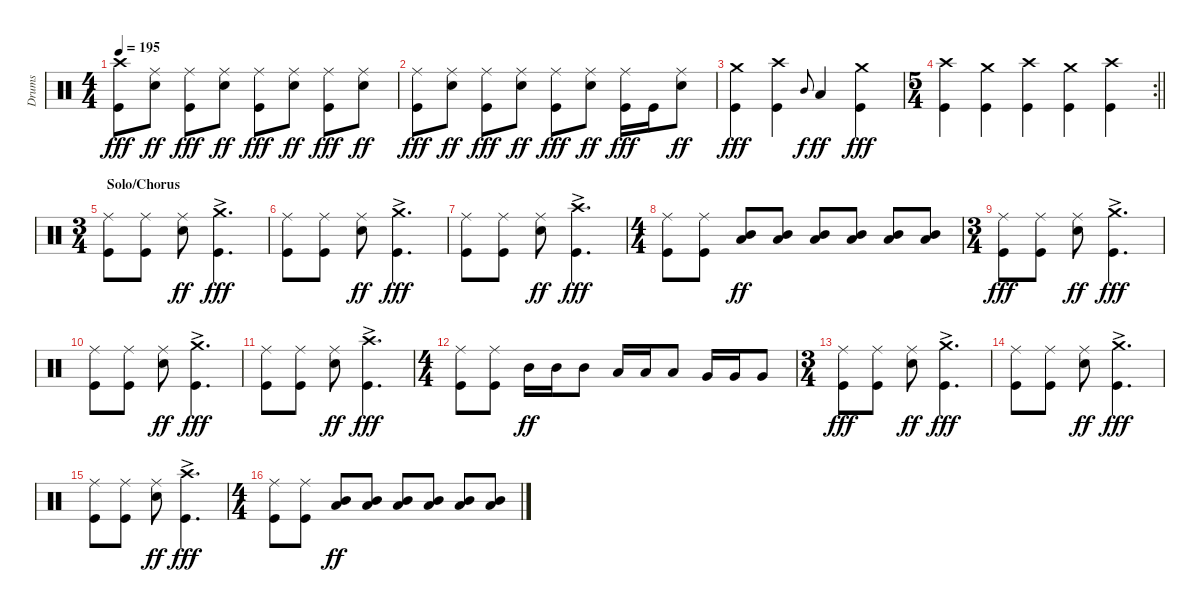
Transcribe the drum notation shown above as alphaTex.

\track ("Drums" "Drums") {instrument percussion}
\staff {score}
\articulation defaults
\ts (4 4)
\tempo 195
\clef neutral
\ks c
("Crash high (hit)" "Kick (hit)").8{dy fff} ("Ride (middle)" "Electric Snare (hit)").8{dy ff} ("Ride (middle)" "Kick (hit)").8{dy fff} ("Ride (middle)" "Electric Snare (hit)").8{dy ff} ("Ride (middle)" "Kick (hit)").8{dy fff} ("Ride (middle)" "Electric Snare (hit)").8{dy ff} ("Ride (middle)" "Kick (hit)").8{dy fff} ("Ride (middle)" "Electric Snare (hit)").8{dy ff} |
("Ride (middle)" "Kick (hit)").8{dy fff} ("Ride (middle)" "Electric Snare (hit)").8{dy ff} ("Ride (middle)" "Kick (hit)").8{dy fff} ("Ride (middle)" "Electric Snare (hit)").8{dy ff} ("Ride (middle)" "Kick (hit)").8{dy fff} ("Ride (middle)" "Electric Snare (hit)").8{dy ff} ("Ride (middle)" "Kick (hit)").16{dy fff} "Kick (hit)".16 ("Ride (middle)" "Electric Snare (hit)").8{dy ff} |
("Crash medium (hit)" "Kick (hit)").4{dy fff} ("Crash high (hit)" "Kick (hit)").4 "Mid Tom (hit)".8{gr onbeat dy f} "Low Tom (hit)".4{dy ff} ("Crash medium (hit)" "Kick (hit)").4{dy fff} |
\rc 2
\ts (5 4)
\barLineRight lightlight
("Crash high (hit)" "Kick (hit)").4 ("Crash medium (hit)" "Kick (hit)").4 ("Crash high (hit)" "Kick (hit)").4 ("Crash medium (hit)" "Kick (hit)").4 ("Crash high (hit)" "Kick (hit)").4 |
\ts (3 4)
\section ("" " Solo/Chorus")
("Ride (middle)" "Kick (hit)").8 ("Ride (middle)" "Kick (hit)").8 ("Ride (middle)" "Electric Snare (hit)").8{dy ff} ("Crash medium (hit)"{ac} "Kick (hit)").4{d dy fff} |
("Ride (middle)" "Kick (hit)").8 ("Ride (middle)" "Kick (hit)").8 ("Ride (middle)" "Electric Snare (hit)").8{dy ff} ("Crash medium (hit)"{ac} "Kick (hit)").4{d dy fff} |
("Ride (middle)" "Kick (hit)").8 ("Ride (middle)" "Kick (hit)").8 ("Ride (middle)" "Electric Snare (hit)").8{dy ff} ("Crash high (hit)"{ac} "Kick (hit)").4{d dy fff} |
\ts (4 4)
("Ride (middle)" "Kick (hit)").8 ("Ride (middle)" "Kick (hit)").8 ("Mid Tom (hit)" "Low Tom (hit)").8{dy ff} ("Mid Tom (hit)" "Low Tom (hit)").8 ("Mid Tom (hit)" "Low Tom (hit)").8 ("Mid Tom (hit)" "Low Tom (hit)").8 ("Mid Tom (hit)" "Low Tom (hit)").8 ("Mid Tom (hit)" "Low Tom (hit)").8 |
\ts (3 4)
("Ride (middle)" "Kick (hit)").8{dy fff} ("Ride (middle)" "Kick (hit)").8 ("Ride (middle)" "Electric Snare (hit)").8{dy ff} ("Crash medium (hit)"{ac} "Kick (hit)").4{d dy fff} |
("Ride (middle)" "Kick (hit)").8 ("Ride (middle)" "Kick (hit)").8 ("Ride (middle)" "Electric Snare (hit)").8{dy ff} ("Crash medium (hit)"{ac} "Kick (hit)").4{d dy fff} |
("Ride (middle)" "Kick (hit)").8 ("Ride (middle)" "Kick (hit)").8 ("Ride (middle)" "Electric Snare (hit)").8{dy ff} ("Crash high (hit)"{ac} "Kick (hit)").4{d dy fff} |
\ts (4 4)
("Ride (middle)" "Kick (hit)").8 ("Ride (middle)" "Kick (hit)").8 "Mid Tom (hit)".16{dy ff} "Mid Tom (hit)".16 "Mid Tom (hit)".8 "Low Tom (hit)".16 "Low Tom (hit)".16 "Low Tom (hit)".8 "Very Low Tom (hit)".16 "Very Low Tom (hit)".16 "Very Low Tom (hit)".8 |
\ts (3 4)
("Ride (middle)" "Kick (hit)").8{dy fff} ("Ride (middle)" "Kick (hit)").8 ("Ride (middle)" "Electric Snare (hit)").8{dy ff} ("Crash medium (hit)"{ac} "Kick (hit)").4{d dy fff} |
("Ride (middle)" "Kick (hit)").8 ("Ride (middle)" "Kick (hit)").8 ("Ride (middle)" "Electric Snare (hit)").8{dy ff} ("Crash medium (hit)"{ac} "Kick (hit)").4{d dy fff} |
("Ride (middle)" "Kick (hit)").8 ("Ride (middle)" "Kick (hit)").8 ("Ride (middle)" "Electric Snare (hit)").8{dy ff} ("Crash high (hit)"{ac} "Kick (hit)").4{d dy fff} |
\ts (4 4)
("Ride (middle)" "Kick (hit)").8 ("Ride (middle)" "Kick (hit)").8 ("Mid Tom (hit)" "Low Tom (hit)").8{dy ff} ("Mid Tom (hit)" "Low Tom (hit)").8 ("Mid Tom (hit)" "Low Tom (hit)").8 ("Mid Tom (hit)" "Low Tom (hit)").8 ("Mid Tom (hit)" "Low Tom (hit)").8 ("Mid Tom (hit)" "Low Tom (hit)").8
